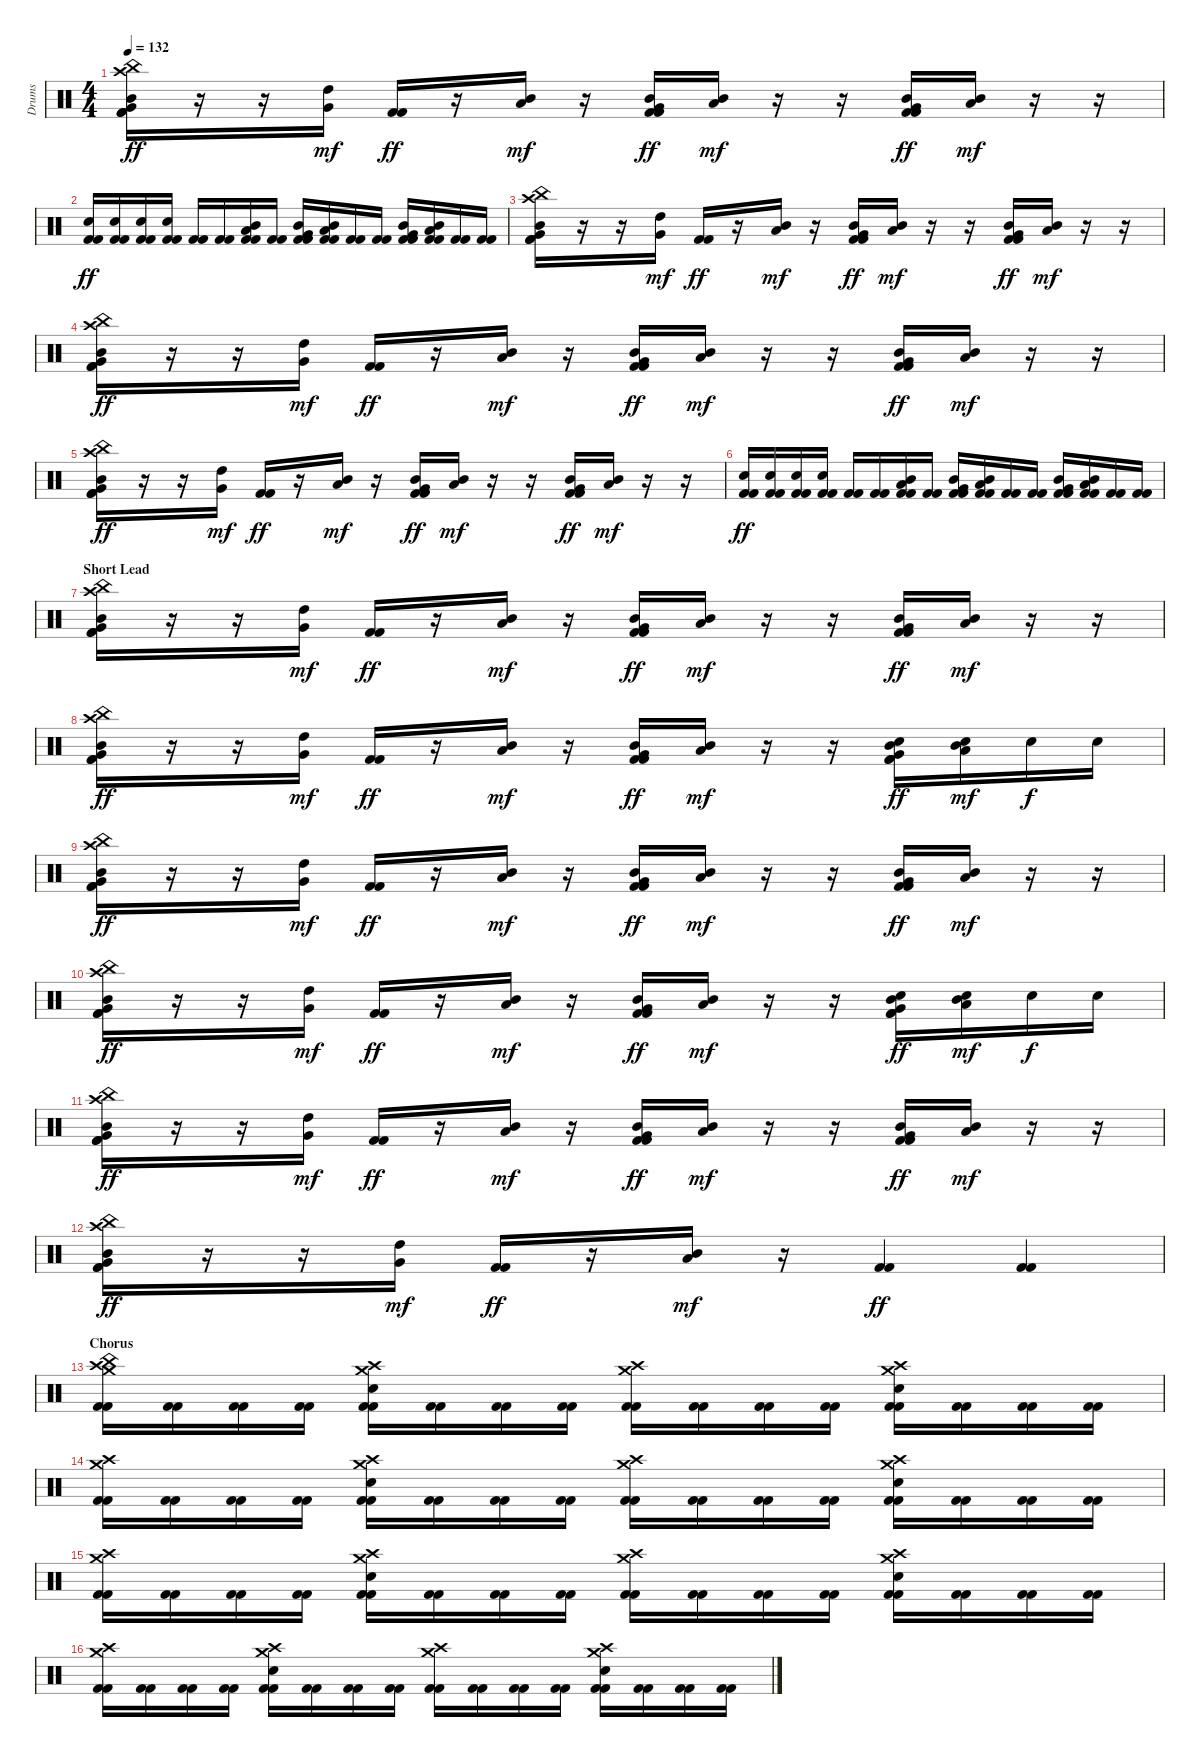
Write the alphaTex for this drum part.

\track ("Drums" "Drums") {instrument percussion}
\staff {score}
\articulation defaults
\ts (4 4)
\tempo 132
\clef neutral
\ks c
("China (hit)" "Mid Tom (hit)" "Very Low Tom (hit)" "Crash high (hit)" "Kick (hit) 2" "Kick (hit) 2").16{dy ff} r.16 r.16 ("High Tom (hit)" "Very Low Tom (hit)").16{dy mf} ("Kick (hit) 2" "Kick (hit) 2").16{dy ff} r.16 ("Mid Tom (hit)" "Low Tom (hit)").16{dy mf} r.16 ("Mid Tom (hit)" "Very Low Tom (hit)" "Kick (hit) 2" "Kick (hit) 2").16{dy ff} ("Low Tom (hit)" "Mid Tom (hit)").16{dy mf} r.16 r.16 ("Mid Tom (hit)" "Very Low Tom (hit)" "Kick (hit) 2" "Kick (hit) 2").16{dy ff} ("Mid Tom (hit)" "Low Tom (hit)").16{dy mf} r.16 r.16 |
("Electric Snare (hit)" "Kick (hit) 2" "Kick (hit) 2").16{dy ff} ("Electric Snare (hit)" "Kick (hit) 2" "Kick (hit) 2").16 ("Electric Snare (hit)" "Kick (hit) 2" "Kick (hit) 2").16 ("Electric Snare (hit)" "Kick (hit) 2" "Kick (hit) 2").16 ("Kick (hit) 2" "Kick (hit) 2").16 ("Kick (hit) 2" "Kick (hit) 2").16 ("Mid Tom (hit)" "Low Tom (hit)" "Kick (hit) 2" "Kick (hit) 2").16 ("Kick (hit) 2" "Kick (hit) 2").16 ("Mid Tom (hit)" "Very Low Tom (hit)" "Kick (hit) 2" "Kick (hit) 2").16 ("Low Tom (hit)" "Mid Tom (hit)" "Kick (hit) 2" "Kick (hit) 2").16 ("Kick (hit) 2" "Kick (hit) 2").16 ("Kick (hit) 2" "Kick (hit) 2").16 ("Mid Tom (hit)" "Very Low Tom (hit)" "Kick (hit) 2" "Kick (hit) 2").16 ("Mid Tom (hit)" "Low Tom (hit)" "Kick (hit) 2" "Kick (hit) 2").16 ("Kick (hit) 2" "Kick (hit) 2").16 ("Kick (hit) 2" "Kick (hit) 2").16 |
("China (hit)" "Mid Tom (hit)" "Very Low Tom (hit)" "Crash high (hit)" "Kick (hit) 2" "Kick (hit) 2").16 r.16 r.16 ("High Tom (hit)" "Very Low Tom (hit)").16{dy mf} ("Kick (hit) 2" "Kick (hit) 2").16{dy ff} r.16 ("Mid Tom (hit)" "Low Tom (hit)").16{dy mf} r.16 ("Mid Tom (hit)" "Very Low Tom (hit)" "Kick (hit) 2" "Kick (hit) 2").16{dy ff} ("Low Tom (hit)" "Mid Tom (hit)").16{dy mf} r.16 r.16 ("Mid Tom (hit)" "Very Low Tom (hit)" "Kick (hit) 2" "Kick (hit) 2").16{dy ff} ("Mid Tom (hit)" "Low Tom (hit)").16{dy mf} r.16 r.16 |
("China (hit)" "Mid Tom (hit)" "Very Low Tom (hit)" "Crash high (hit)" "Kick (hit) 2" "Kick (hit) 2").16{dy ff} r.16 r.16 ("High Tom (hit)" "Very Low Tom (hit)").16{dy mf} ("Kick (hit) 2" "Kick (hit) 2").16{dy ff} r.16 ("Mid Tom (hit)" "Low Tom (hit)").16{dy mf} r.16 ("Mid Tom (hit)" "Very Low Tom (hit)" "Kick (hit) 2" "Kick (hit) 2").16{dy ff} ("Low Tom (hit)" "Mid Tom (hit)").16{dy mf} r.16 r.16 ("Mid Tom (hit)" "Very Low Tom (hit)" "Kick (hit) 2" "Kick (hit) 2").16{dy ff} ("Mid Tom (hit)" "Low Tom (hit)").16{dy mf} r.16 r.16 |
("China (hit)" "Mid Tom (hit)" "Very Low Tom (hit)" "Crash high (hit)" "Kick (hit) 2" "Kick (hit) 2").16{dy ff} r.16 r.16 ("High Tom (hit)" "Very Low Tom (hit)").16{dy mf} ("Kick (hit) 2" "Kick (hit) 2").16{dy ff} r.16 ("Mid Tom (hit)" "Low Tom (hit)").16{dy mf} r.16 ("Mid Tom (hit)" "Very Low Tom (hit)" "Kick (hit) 2" "Kick (hit) 2").16{dy ff} ("Low Tom (hit)" "Mid Tom (hit)").16{dy mf} r.16 r.16 ("Mid Tom (hit)" "Very Low Tom (hit)" "Kick (hit) 2" "Kick (hit) 2").16{dy ff} ("Mid Tom (hit)" "Low Tom (hit)").16{dy mf} r.16 r.16 |
("Electric Snare (hit)" "Kick (hit) 2" "Kick (hit) 2").16{dy ff} ("Electric Snare (hit)" "Kick (hit) 2" "Kick (hit) 2").16 ("Electric Snare (hit)" "Kick (hit) 2" "Kick (hit) 2").16 ("Electric Snare (hit)" "Kick (hit) 2" "Kick (hit) 2").16 ("Kick (hit) 2" "Kick (hit) 2").16 ("Kick (hit) 2" "Kick (hit) 2").16 ("Mid Tom (hit)" "Low Tom (hit)" "Kick (hit) 2" "Kick (hit) 2").16 ("Kick (hit) 2" "Kick (hit) 2").16 ("Mid Tom (hit)" "Very Low Tom (hit)" "Kick (hit) 2" "Kick (hit) 2").16 ("Low Tom (hit)" "Mid Tom (hit)" "Kick (hit) 2" "Kick (hit) 2").16 ("Kick (hit) 2" "Kick (hit) 2").16 ("Kick (hit) 2" "Kick (hit) 2").16 ("Mid Tom (hit)" "Very Low Tom (hit)" "Kick (hit) 2" "Kick (hit) 2").16 ("Mid Tom (hit)" "Low Tom (hit)" "Kick (hit) 2" "Kick (hit) 2").16 ("Kick (hit) 2" "Kick (hit) 2").16 ("Kick (hit) 2" "Kick (hit) 2").16 |
\section ("" "Short Lead")
("China (hit)" "Mid Tom (hit)" "Very Low Tom (hit)" "Crash high (hit)" "Kick (hit) 2" "Kick (hit) 2").16 r.16 r.16 ("High Tom (hit)" "Very Low Tom (hit)").16{dy mf} ("Kick (hit) 2" "Kick (hit) 2").16{dy ff} r.16 ("Mid Tom (hit)" "Low Tom (hit)").16{dy mf} r.16 ("Mid Tom (hit)" "Very Low Tom (hit)" "Kick (hit) 2" "Kick (hit) 2").16{dy ff} ("Low Tom (hit)" "Mid Tom (hit)").16{dy mf} r.16 r.16 ("Mid Tom (hit)" "Very Low Tom (hit)" "Kick (hit) 2" "Kick (hit) 2").16{dy ff} ("Mid Tom (hit)" "Low Tom (hit)").16{dy mf} r.16 r.16 |
("China (hit)" "Mid Tom (hit)" "Very Low Tom (hit)" "Crash high (hit)" "Kick (hit) 2" "Kick (hit) 2").16{dy ff} r.16 r.16 ("High Tom (hit)" "Very Low Tom (hit)").16{dy mf} ("Kick (hit) 2" "Kick (hit) 2").16{dy ff} r.16 ("Mid Tom (hit)" "Low Tom (hit)").16{dy mf} r.16 ("Mid Tom (hit)" "Very Low Tom (hit)" "Kick (hit) 2" "Kick (hit) 2").16{dy ff} ("Low Tom (hit)" "Mid Tom (hit)").16{dy mf} r.16 r.16 ("Electric Snare (hit)" "Mid Tom (hit)" "Very Low Tom (hit)" "Kick (hit) 2" "Kick (hit) 2").16{dy ff} ("Electric Snare (hit)" "Mid Tom (hit)" "Low Tom (hit)").16{dy mf} "Electric Snare (hit)".16{dy f} "Electric Snare (hit)".16 |
("China (hit)" "Mid Tom (hit)" "Very Low Tom (hit)" "Crash high (hit)" "Kick (hit) 2" "Kick (hit) 2").16{dy ff} r.16 r.16 ("High Tom (hit)" "Very Low Tom (hit)").16{dy mf} ("Kick (hit) 2" "Kick (hit) 2").16{dy ff} r.16 ("Mid Tom (hit)" "Low Tom (hit)").16{dy mf} r.16 ("Mid Tom (hit)" "Very Low Tom (hit)" "Kick (hit) 2" "Kick (hit) 2").16{dy ff} ("Low Tom (hit)" "Mid Tom (hit)").16{dy mf} r.16 r.16 ("Mid Tom (hit)" "Very Low Tom (hit)" "Kick (hit) 2" "Kick (hit) 2").16{dy ff} ("Mid Tom (hit)" "Low Tom (hit)").16{dy mf} r.16 r.16 |
("China (hit)" "Mid Tom (hit)" "Very Low Tom (hit)" "Crash high (hit)" "Kick (hit) 2" "Kick (hit) 2").16{dy ff} r.16 r.16 ("High Tom (hit)" "Very Low Tom (hit)").16{dy mf} ("Kick (hit) 2" "Kick (hit) 2").16{dy ff} r.16 ("Mid Tom (hit)" "Low Tom (hit)").16{dy mf} r.16 ("Mid Tom (hit)" "Very Low Tom (hit)" "Kick (hit) 2" "Kick (hit) 2").16{dy ff} ("Low Tom (hit)" "Mid Tom (hit)").16{dy mf} r.16 r.16 ("Electric Snare (hit)" "Mid Tom (hit)" "Very Low Tom (hit)" "Kick (hit) 2" "Kick (hit) 2").16{dy ff} ("Electric Snare (hit)" "Mid Tom (hit)" "Low Tom (hit)").16{dy mf} "Electric Snare (hit)".16{dy f} "Electric Snare (hit)".16 |
("China (hit)" "Mid Tom (hit)" "Very Low Tom (hit)" "Crash high (hit)" "Kick (hit) 2" "Kick (hit) 2").16{dy ff} r.16 r.16 ("High Tom (hit)" "Very Low Tom (hit)").16{dy mf} ("Kick (hit) 2" "Kick (hit) 2").16{dy ff} r.16 ("Mid Tom (hit)" "Low Tom (hit)").16{dy mf} r.16 ("Mid Tom (hit)" "Very Low Tom (hit)" "Kick (hit) 2" "Kick (hit) 2").16{dy ff} ("Low Tom (hit)" "Mid Tom (hit)").16{dy mf} r.16 r.16 ("Mid Tom (hit)" "Very Low Tom (hit)" "Kick (hit) 2" "Kick (hit) 2").16{dy ff} ("Mid Tom (hit)" "Low Tom (hit)").16{dy mf} r.16 r.16 |
("China (hit)" "Mid Tom (hit)" "Very Low Tom (hit)" "Crash high (hit)" "Kick (hit) 2" "Kick (hit) 2").16{dy ff} r.16 r.16 ("High Tom (hit)" "Very Low Tom (hit)").16{dy mf} ("Kick (hit) 2" "Kick (hit) 2").16{dy ff} r.16 ("Mid Tom (hit)" "Low Tom (hit)").16{dy mf} r.16 ("Kick (hit) 2" "Kick (hit) 2").4{dy ff} ("Kick (hit) 2" "Kick (hit) 2").4 |
\section ("" "Chorus")
("Crash high (hit)" "China (hit)" "Crash medium (hit)" "Kick (hit) 2" "Kick (hit) 2").16 ("Kick (hit) 2" "Kick (hit) 2").16 ("Kick (hit) 2" "Kick (hit) 2").16 ("Kick (hit) 2" "Kick (hit) 2").16 ("Crash high (hit)" "Crash medium (hit)" "Electric Snare (hit)" "Kick (hit) 2" "Kick (hit) 2").16 ("Kick (hit) 2" "Kick (hit) 2").16 ("Kick (hit) 2" "Kick (hit) 2").16 ("Kick (hit) 2" "Kick (hit) 2").16 ("Crash high (hit)" "Crash medium (hit)" "Kick (hit) 2" "Kick (hit) 2").16 ("Kick (hit) 2" "Kick (hit) 2").16 ("Kick (hit) 2" "Kick (hit) 2").16 ("Kick (hit) 2" "Kick (hit) 2").16 ("Crash high (hit)" "Crash medium (hit)" "Electric Snare (hit)" "Kick (hit) 2" "Kick (hit) 2").16 ("Kick (hit) 2" "Kick (hit) 2").16 ("Kick (hit) 2" "Kick (hit) 2").16 ("Kick (hit) 2" "Kick (hit) 2").16 |
("Crash high (hit)" "Crash medium (hit)" "Kick (hit) 2" "Kick (hit) 2").16 ("Kick (hit) 2" "Kick (hit) 2").16 ("Kick (hit) 2" "Kick (hit) 2").16 ("Kick (hit) 2" "Kick (hit) 2").16 ("Crash high (hit)" "Crash medium (hit)" "Electric Snare (hit)" "Kick (hit) 2" "Kick (hit) 2").16 ("Kick (hit) 2" "Kick (hit) 2").16 ("Kick (hit) 2" "Kick (hit) 2").16 ("Kick (hit) 2" "Kick (hit) 2").16 ("Crash high (hit)" "Crash medium (hit)" "Kick (hit) 2" "Kick (hit) 2").16 ("Kick (hit) 2" "Kick (hit) 2").16 ("Kick (hit) 2" "Kick (hit) 2").16 ("Kick (hit) 2" "Kick (hit) 2").16 ("Crash high (hit)" "Crash medium (hit)" "Electric Snare (hit)" "Kick (hit) 2" "Kick (hit) 2").16 ("Kick (hit) 2" "Kick (hit) 2").16 ("Kick (hit) 2" "Kick (hit) 2").16 ("Kick (hit) 2" "Kick (hit) 2").16 |
("Crash high (hit)" "Crash medium (hit)" "Kick (hit) 2" "Kick (hit) 2").16 ("Kick (hit) 2" "Kick (hit) 2").16 ("Kick (hit) 2" "Kick (hit) 2").16 ("Kick (hit) 2" "Kick (hit) 2").16 ("Crash high (hit)" "Crash medium (hit)" "Electric Snare (hit)" "Kick (hit) 2" "Kick (hit) 2").16 ("Kick (hit) 2" "Kick (hit) 2").16 ("Kick (hit) 2" "Kick (hit) 2").16 ("Kick (hit) 2" "Kick (hit) 2").16 ("Crash high (hit)" "Crash medium (hit)" "Kick (hit) 2" "Kick (hit) 2").16 ("Kick (hit) 2" "Kick (hit) 2").16 ("Kick (hit) 2" "Kick (hit) 2").16 ("Kick (hit) 2" "Kick (hit) 2").16 ("Crash high (hit)" "Crash medium (hit)" "Electric Snare (hit)" "Kick (hit) 2" "Kick (hit) 2").16 ("Kick (hit) 2" "Kick (hit) 2").16 ("Kick (hit) 2" "Kick (hit) 2").16 ("Kick (hit) 2" "Kick (hit) 2").16 |
("Crash high (hit)" "Crash medium (hit)" "Kick (hit) 2" "Kick (hit) 2").16 ("Kick (hit) 2" "Kick (hit) 2").16 ("Kick (hit) 2" "Kick (hit) 2").16 ("Kick (hit) 2" "Kick (hit) 2").16 ("Crash high (hit)" "Crash medium (hit)" "Electric Snare (hit)" "Kick (hit) 2" "Kick (hit) 2").16 ("Kick (hit) 2" "Kick (hit) 2").16 ("Kick (hit) 2" "Kick (hit) 2").16 ("Kick (hit) 2" "Kick (hit) 2").16 ("Crash high (hit)" "Crash medium (hit)" "Kick (hit) 2" "Kick (hit) 2").16 ("Kick (hit) 2" "Kick (hit) 2").16 ("Kick (hit) 2" "Kick (hit) 2").16 ("Kick (hit) 2" "Kick (hit) 2").16 ("Crash high (hit)" "Crash medium (hit)" "Electric Snare (hit)" "Kick (hit) 2" "Kick (hit) 2").16 ("Kick (hit) 2" "Kick (hit) 2").16 ("Kick (hit) 2" "Kick (hit) 2").16 ("Kick (hit) 2" "Kick (hit) 2").16
